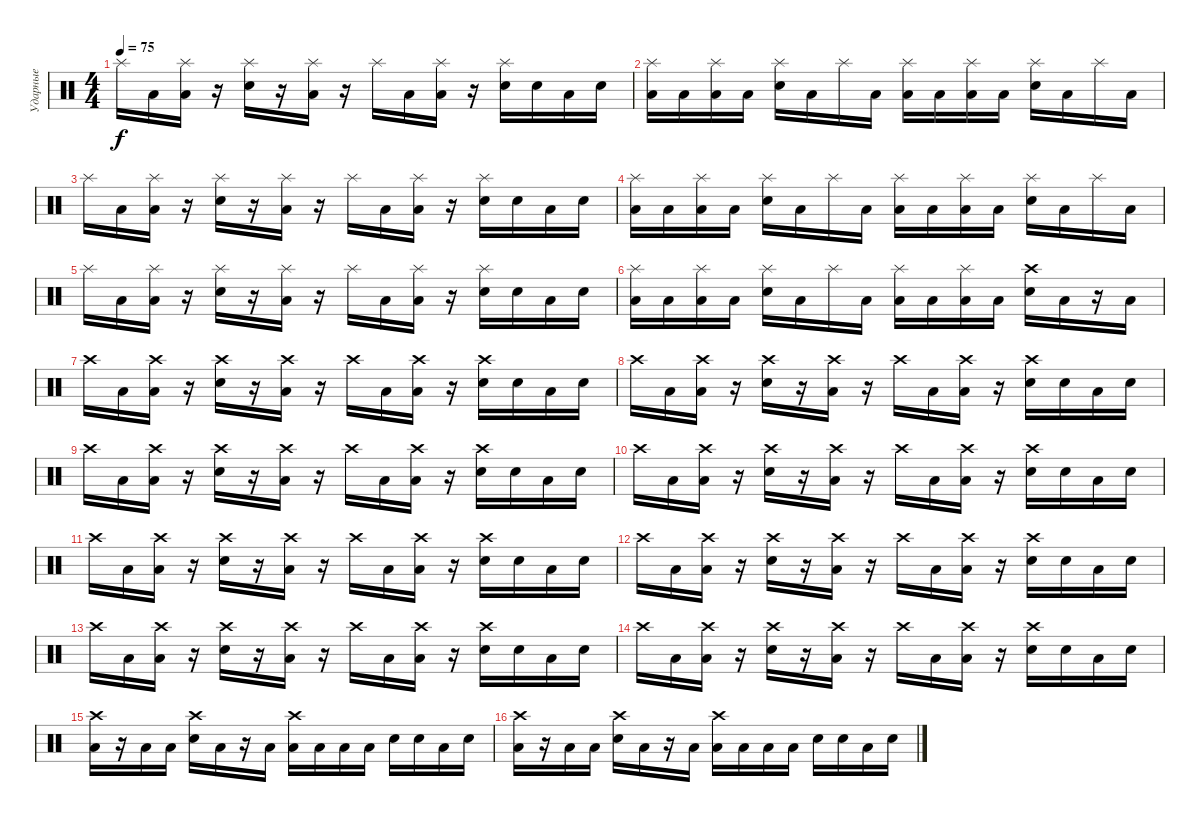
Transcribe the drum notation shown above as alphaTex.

\track ("Ударные" "Ударные") {instrument percussion}
\staff {score}
\articulation defaults
\ts (4 4)
\tempo 75
\clef neutral
\ks c "Splash (hit)".16{dy f} "Low Floor Tom (hit)".16
("Splash (hit)" "Low Floor Tom (hit)").16 r.16 ("Splash (hit)" "Electric Snare (hit)").16 r.16 ("Splash (hit)" "Low Floor Tom (hit)").16 r.16 "Splash (hit)".16 "Low Floor Tom (hit)".16 ("Splash (hit)" "Low Floor Tom (hit)").16 r.16 ("Splash (hit)" "Electric Snare (hit)").16 "Electric Snare (hit)".16 "Low Floor Tom (hit)".16 "Electric Snare (hit)".16 |
("Splash (hit)" "Low Floor Tom (hit)").16 "Low Floor Tom (hit)".16 ("Splash (hit)" "Low Floor Tom (hit)").16 "Low Floor Tom (hit)".16 ("Splash (hit)" "Electric Snare (hit)").16 "Low Floor Tom (hit)".16 "Splash (hit)".16 "Low Floor Tom (hit)".16 ("Splash (hit)" "Low Floor Tom (hit)").16 "Low Floor Tom (hit)".16 ("Splash (hit)" "Low Floor Tom (hit)").16 "Low Floor Tom (hit)".16 ("Splash (hit)" "Electric Snare (hit)").16 "Low Floor Tom (hit)".16 "Splash (hit)".16 "Low Floor Tom (hit)".16 |
"Splash (hit)".16 "Low Floor Tom (hit)".16 ("Splash (hit)" "Low Floor Tom (hit)").16 r.16 ("Splash (hit)" "Electric Snare (hit)").16 r.16 ("Splash (hit)" "Low Floor Tom (hit)").16 r.16 "Splash (hit)".16 "Low Floor Tom (hit)".16 ("Splash (hit)" "Low Floor Tom (hit)").16 r.16 ("Splash (hit)" "Electric Snare (hit)").16 "Electric Snare (hit)".16 "Low Floor Tom (hit)".16 "Electric Snare (hit)".16 |
("Splash (hit)" "Low Floor Tom (hit)").16 "Low Floor Tom (hit)".16 ("Splash (hit)" "Low Floor Tom (hit)").16 "Low Floor Tom (hit)".16 ("Splash (hit)" "Electric Snare (hit)").16 "Low Floor Tom (hit)".16 "Splash (hit)".16 "Low Floor Tom (hit)".16 ("Splash (hit)" "Low Floor Tom (hit)").16 "Low Floor Tom (hit)".16 ("Splash (hit)" "Low Floor Tom (hit)").16 "Low Floor Tom (hit)".16 ("Splash (hit)" "Electric Snare (hit)").16 "Low Floor Tom (hit)".16 "Splash (hit)".16 "Low Floor Tom (hit)".16 |
"Splash (hit)".16 "Low Floor Tom (hit)".16 ("Splash (hit)" "Low Floor Tom (hit)").16 r.16 ("Splash (hit)" "Electric Snare (hit)").16 r.16 ("Splash (hit)" "Low Floor Tom (hit)").16 r.16 "Splash (hit)".16 "Low Floor Tom (hit)".16 ("Splash (hit)" "Low Floor Tom (hit)").16 r.16 ("Splash (hit)" "Electric Snare (hit)").16 "Electric Snare (hit)".16 "Low Floor Tom (hit)".16 "Electric Snare (hit)".16 |
("Splash (hit)" "Low Floor Tom (hit)").16 "Low Floor Tom (hit)".16 ("Splash (hit)" "Low Floor Tom (hit)").16 "Low Floor Tom (hit)".16 ("Splash (hit)" "Electric Snare (hit)").16 "Low Floor Tom (hit)".16 "Splash (hit)".16 "Low Floor Tom (hit)".16 ("Splash (hit)" "Low Floor Tom (hit)").16 "Low Floor Tom (hit)".16 ("Splash (hit)" "Low Floor Tom (hit)").16 "Low Floor Tom (hit)".16 ("Crash high (hit)" "Electric Snare (hit)").16 "Low Floor Tom (hit)".16 r.16 "Low Floor Tom (hit)".16 |
"Crash high (hit)".16 "Low Floor Tom (hit)".16 ("Crash high (hit)" "Low Floor Tom (hit)").16 r.16 ("Crash high (hit)" "Electric Snare (hit)").16 r.16 ("Crash high (hit)" "Low Floor Tom (hit)").16 r.16 "Crash high (hit)".16 "Low Floor Tom (hit)".16 ("Crash high (hit)" "Low Floor Tom (hit)").16 r.16 ("Crash high (hit)" "Electric Snare (hit)").16 "Electric Snare (hit)".16 "Low Floor Tom (hit)".16 "Electric Snare (hit)".16 |
"Crash high (hit)".16 "Low Floor Tom (hit)".16 ("Crash high (hit)" "Low Floor Tom (hit)").16 r.16 ("Crash high (hit)" "Electric Snare (hit)").16 r.16 ("Crash high (hit)" "Low Floor Tom (hit)").16 r.16 "Crash high (hit)".16 "Low Floor Tom (hit)".16 ("Crash high (hit)" "Low Floor Tom (hit)").16 r.16 ("Crash high (hit)" "Electric Snare (hit)").16 "Electric Snare (hit)".16 "Low Floor Tom (hit)".16 "Electric Snare (hit)".16 |
"Crash high (hit)".16 "Low Floor Tom (hit)".16 ("Crash high (hit)" "Low Floor Tom (hit)").16 r.16 ("Crash high (hit)" "Electric Snare (hit)").16 r.16 ("Crash high (hit)" "Low Floor Tom (hit)").16 r.16 "Crash high (hit)".16 "Low Floor Tom (hit)".16 ("Crash high (hit)" "Low Floor Tom (hit)").16 r.16 ("Crash high (hit)" "Electric Snare (hit)").16 "Electric Snare (hit)".16 "Low Floor Tom (hit)".16 "Electric Snare (hit)".16 |
"Crash high (hit)".16 "Low Floor Tom (hit)".16 ("Crash high (hit)" "Low Floor Tom (hit)").16 r.16 ("Crash high (hit)" "Electric Snare (hit)").16 r.16 ("Crash high (hit)" "Low Floor Tom (hit)").16 r.16 "Crash high (hit)".16 "Low Floor Tom (hit)".16 ("Crash high (hit)" "Low Floor Tom (hit)").16 r.16 ("Crash high (hit)" "Electric Snare (hit)").16 "Electric Snare (hit)".16 "Low Floor Tom (hit)".16 "Electric Snare (hit)".16 |
"Crash high (hit)".16 "Low Floor Tom (hit)".16 ("Crash high (hit)" "Low Floor Tom (hit)").16 r.16 ("Crash high (hit)" "Electric Snare (hit)").16 r.16 ("Crash high (hit)" "Low Floor Tom (hit)").16 r.16 "Crash high (hit)".16 "Low Floor Tom (hit)".16 ("Crash high (hit)" "Low Floor Tom (hit)").16 r.16 ("Crash high (hit)" "Electric Snare (hit)").16 "Electric Snare (hit)".16 "Low Floor Tom (hit)".16 "Electric Snare (hit)".16 |
"Crash high (hit)".16 "Low Floor Tom (hit)".16 ("Crash high (hit)" "Low Floor Tom (hit)").16 r.16 ("Crash high (hit)" "Electric Snare (hit)").16 r.16 ("Crash high (hit)" "Low Floor Tom (hit)").16 r.16 "Crash high (hit)".16 "Low Floor Tom (hit)".16 ("Crash high (hit)" "Low Floor Tom (hit)").16 r.16 ("Crash high (hit)" "Electric Snare (hit)").16 "Electric Snare (hit)".16 "Low Floor Tom (hit)".16 "Electric Snare (hit)".16 |
"Crash high (hit)".16 "Low Floor Tom (hit)".16 ("Crash high (hit)" "Low Floor Tom (hit)").16 r.16 ("Crash high (hit)" "Electric Snare (hit)").16 r.16 ("Crash high (hit)" "Low Floor Tom (hit)").16 r.16 "Crash high (hit)".16 "Low Floor Tom (hit)".16 ("Crash high (hit)" "Low Floor Tom (hit)").16 r.16 ("Crash high (hit)" "Electric Snare (hit)").16 "Electric Snare (hit)".16 "Low Floor Tom (hit)".16 "Electric Snare (hit)".16 |
"Crash high (hit)".16 "Low Floor Tom (hit)".16 ("Crash high (hit)" "Low Floor Tom (hit)").16 r.16 ("Crash high (hit)" "Electric Snare (hit)").16 r.16 ("Crash high (hit)" "Low Floor Tom (hit)").16 r.16 "Crash high (hit)".16 "Low Floor Tom (hit)".16 ("Crash high (hit)" "Low Floor Tom (hit)").16 r.16 ("Crash high (hit)" "Electric Snare (hit)").16 "Electric Snare (hit)".16 "Low Floor Tom (hit)".16 "Electric Snare (hit)".16 |
("Crash high (hit)" "Low Floor Tom (hit)").16 r.16 "Low Floor Tom (hit)".16 "Low Floor Tom (hit)".16 ("Crash high (hit)" "Electric Snare (hit)").16 "Low Floor Tom (hit)".16 r.16 "Low Floor Tom (hit)".16 ("Crash high (hit)" "Low Floor Tom (hit)").16 "Low Floor Tom (hit)".16 "Low Floor Tom (hit)".16 "Low Floor Tom (hit)".16 "Electric Snare (hit)".16 "Electric Snare (hit)".16 "Low Floor Tom (hit)".16 "Electric Snare (hit)".16 |
("Crash high (hit)" "Low Floor Tom (hit)").16 r.16 "Low Floor Tom (hit)".16 "Low Floor Tom (hit)".16 ("Crash high (hit)" "Electric Snare (hit)").16 "Low Floor Tom (hit)".16 r.16 "Low Floor Tom (hit)".16 ("Crash high (hit)" "Low Floor Tom (hit)").16 "Low Floor Tom (hit)".16 "Low Floor Tom (hit)".16 "Low Floor Tom (hit)".16 "Electric Snare (hit)".16 "Electric Snare (hit)".16 "Low Floor Tom (hit)".16 "Electric Snare (hit)".16
